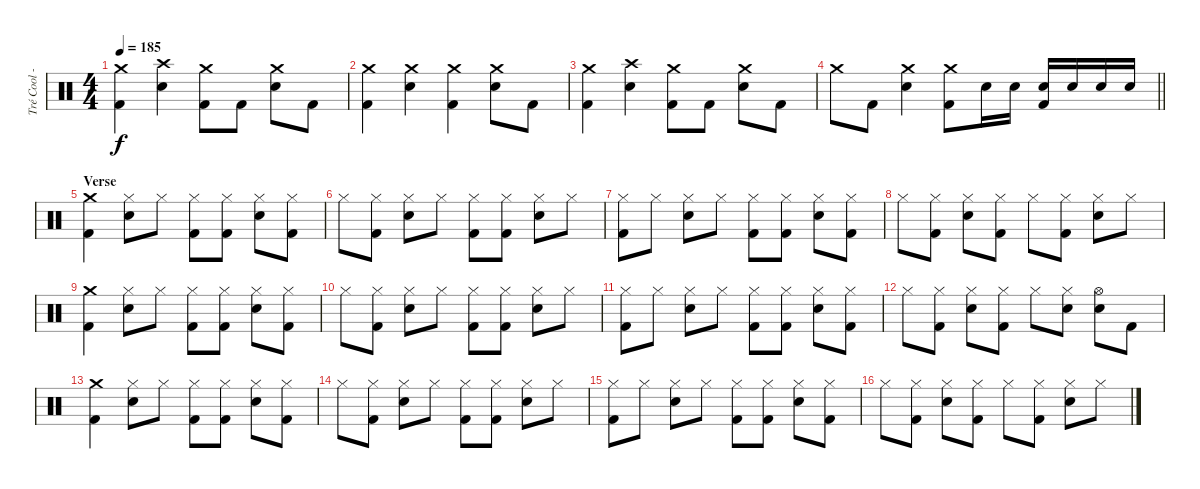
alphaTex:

\track ("Tré Cool - Drums" "Tré Cool -") {instrument percussion}
\staff {score}
\articulation defaults
\ts (4 4)
\tempo 185
\clef neutral
\ks c
("Crash medium (hit)" "Kick (hit) 2").4{dy f} ("Crash high (hit)" "Electric Snare (hit)").4 ("Crash medium (hit)" "Kick (hit) 2").8 "Kick (hit) 2".8 ("Crash medium (hit)" "Electric Snare (hit)").8 "Kick (hit) 2".8 |
("Crash medium (hit)" "Kick (hit) 2").4 ("Crash medium (hit)" "Electric Snare (hit)").4 ("Crash medium (hit)" "Kick (hit) 2").4 ("Crash medium (hit)" "Electric Snare (hit)").8 "Kick (hit) 2".8 |
("Crash medium (hit)" "Kick (hit) 2").4 ("Crash high (hit)" "Electric Snare (hit)").4 ("Crash medium (hit)" "Kick (hit) 2").8 "Kick (hit) 2".8 ("Crash medium (hit)" "Electric Snare (hit)").8 "Kick (hit) 2".8 |
\barLineRight lightlight "Crash medium (hit)".8 "Kick (hit) 2".8
("Crash medium (hit)" "Electric Snare (hit)").4 ("Crash medium (hit)" "Kick (hit) 2").8 "Electric Snare (hit)".16 "Electric Snare (hit)".16 ("Electric Snare (hit)" "Kick (hit) 2").16 "Electric Snare (hit)".16 "Electric Snare (hit)".16 "Electric Snare (hit)".16 |
\section ("" "Verse")
("Crash medium (hit)" "Kick (hit) 2").4 ("Hi-Hat (closed)" "Electric Snare (hit)").8 "Hi-Hat (closed)".8 ("Hi-Hat (closed)" "Kick (hit) 2").8 ("Hi-Hat (closed)" "Kick (hit) 2").8 ("Hi-Hat (closed)" "Electric Snare (hit)").8 ("Hi-Hat (closed)" "Kick (hit) 2").8 |
"Hi-Hat (closed)".8 ("Hi-Hat (closed)" "Kick (hit) 2").8 ("Hi-Hat (closed)" "Electric Snare (hit)").8 "Hi-Hat (closed)".8 ("Hi-Hat (closed)" "Kick (hit) 2").8 ("Hi-Hat (closed)" "Kick (hit) 2").8 ("Hi-Hat (closed)" "Electric Snare (hit)").8 "Hi-Hat (closed)".8 |
("Hi-Hat (closed)" "Kick (hit) 2").8 "Hi-Hat (closed)".8 ("Hi-Hat (closed)" "Electric Snare (hit)").8 "Hi-Hat (closed)".8 ("Hi-Hat (closed)" "Kick (hit) 2").8 ("Hi-Hat (closed)" "Kick (hit) 2").8 ("Hi-Hat (closed)" "Electric Snare (hit)").8 ("Hi-Hat (closed)" "Kick (hit) 2").8 |
"Hi-Hat (closed)".8 ("Hi-Hat (closed)" "Kick (hit) 2").8 ("Hi-Hat (closed)" "Electric Snare (hit)").8 ("Hi-Hat (closed)" "Kick (hit) 2").8 "Hi-Hat (closed)".8 ("Hi-Hat (closed)" "Kick (hit) 2").8 ("Hi-Hat (closed)" "Electric Snare (hit)").8 "Hi-Hat (closed)".8 |
("Crash medium (hit)" "Kick (hit) 2").4 ("Hi-Hat (closed)" "Electric Snare (hit)").8 "Hi-Hat (closed)".8 ("Hi-Hat (closed)" "Kick (hit) 2").8 ("Hi-Hat (closed)" "Kick (hit) 2").8 ("Hi-Hat (closed)" "Electric Snare (hit)").8 ("Hi-Hat (closed)" "Kick (hit) 2").8 |
"Hi-Hat (closed)".8 ("Hi-Hat (closed)" "Kick (hit) 2").8 ("Hi-Hat (closed)" "Electric Snare (hit)").8 "Hi-Hat (closed)".8 ("Hi-Hat (closed)" "Kick (hit) 2").8 ("Hi-Hat (closed)" "Kick (hit) 2").8 ("Hi-Hat (closed)" "Electric Snare (hit)").8 "Hi-Hat (closed)".8 |
("Hi-Hat (closed)" "Kick (hit) 2").8 "Hi-Hat (closed)".8 ("Hi-Hat (closed)" "Electric Snare (hit)").8 "Hi-Hat (closed)".8 ("Hi-Hat (closed)" "Kick (hit) 2").8 ("Hi-Hat (closed)" "Kick (hit) 2").8 ("Hi-Hat (closed)" "Electric Snare (hit)").8 ("Hi-Hat (closed)" "Kick (hit) 2").8 |
"Hi-Hat (closed)".8 ("Hi-Hat (closed)" "Kick (hit) 2").8 ("Hi-Hat (closed)" "Electric Snare (hit)").8 ("Hi-Hat (closed)" "Kick (hit) 2").8 "Hi-Hat (closed)".8 ("Hi-Hat (closed)" "Electric Snare (hit)").8 ("Hi-Hat (open)" "Electric Snare (hit)").8 "Kick (hit) 2".8 |
("Crash medium (hit)" "Kick (hit) 2").4 ("Hi-Hat (closed)" "Electric Snare (hit)").8 "Hi-Hat (closed)".8 ("Hi-Hat (closed)" "Kick (hit) 2").8 ("Hi-Hat (closed)" "Kick (hit) 2").8 ("Hi-Hat (closed)" "Electric Snare (hit)").8 ("Hi-Hat (closed)" "Kick (hit) 2").8 |
"Hi-Hat (closed)".8 ("Hi-Hat (closed)" "Kick (hit) 2").8 ("Hi-Hat (closed)" "Electric Snare (hit)").8 "Hi-Hat (closed)".8 ("Hi-Hat (closed)" "Kick (hit) 2").8 ("Hi-Hat (closed)" "Kick (hit) 2").8 ("Hi-Hat (closed)" "Electric Snare (hit)").8 "Hi-Hat (closed)".8 |
("Hi-Hat (closed)" "Kick (hit) 2").8 "Hi-Hat (closed)".8 ("Hi-Hat (closed)" "Electric Snare (hit)").8 "Hi-Hat (closed)".8 ("Hi-Hat (closed)" "Kick (hit) 2").8 ("Hi-Hat (closed)" "Kick (hit) 2").8 ("Hi-Hat (closed)" "Electric Snare (hit)").8 ("Hi-Hat (closed)" "Kick (hit) 2").8 |
"Hi-Hat (closed)".8 ("Hi-Hat (closed)" "Kick (hit) 2").8 ("Hi-Hat (closed)" "Electric Snare (hit)").8 ("Hi-Hat (closed)" "Kick (hit) 2").8 "Hi-Hat (closed)".8 ("Hi-Hat (closed)" "Kick (hit) 2").8 ("Hi-Hat (closed)" "Electric Snare (hit)").8 "Hi-Hat (closed)".8
